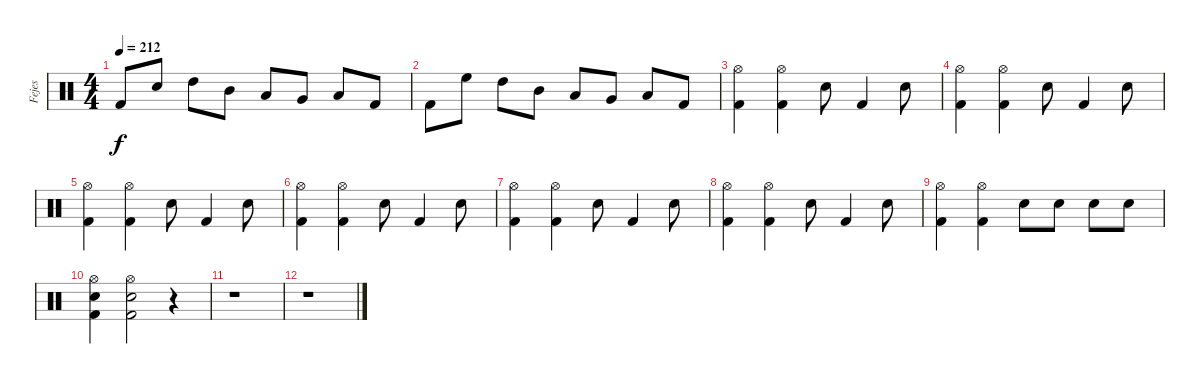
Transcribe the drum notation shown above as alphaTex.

\track ("Fejes" "Fejes") {instrument percussion}
\staff {score}
\articulation defaults
\ts (4 4)
\tempo 212
\clef neutral
\ks c "Kick (hit) 2".8{dy f} "Snare (hit) 2".8 "High Tom (hit)".8 "Mid Tom (hit)".8 "Low Tom (hit)".8 "Very Low Tom (hit)".8 "Low Floor Tom (hit)".8 "Kick (hit) 2".8
|
"Kick (hit) 2".8 "High Floor Tom (hit)".8 "High Tom (hit)".8 "Mid Tom (hit)".8 "Low Tom (hit)".8 "Very Low Tom (hit)".8 "Low Floor Tom (hit)".8 "Kick (hit) 2".8 |
("Hi-Hat (open)" "Kick (hit) 2").4 ("Hi-Hat (open)" "Kick (hit) 2").4 "Snare (hit) 2".8 "Kick (hit) 2".4 "Snare (hit) 2".8 |
("Hi-Hat (open)" "Kick (hit) 2").4 ("Hi-Hat (open)" "Kick (hit) 2").4 "Snare (hit) 2".8 "Kick (hit) 2".4 "Snare (hit) 2".8 |
("Hi-Hat (open)" "Kick (hit) 2").4 ("Hi-Hat (open)" "Kick (hit) 2").4 "Snare (hit) 2".8 "Kick (hit) 2".4 "Snare (hit) 2".8 |
("Hi-Hat (open)" "Kick (hit) 2").4 ("Hi-Hat (open)" "Kick (hit) 2").4 "Snare (hit) 2".8 "Kick (hit) 2".4 "Snare (hit) 2".8 |
("Hi-Hat (open)" "Kick (hit) 2").4 ("Hi-Hat (open)" "Kick (hit) 2").4 "Snare (hit) 2".8 "Kick (hit) 2".4 "Snare (hit) 2".8 |
("Hi-Hat (open)" "Kick (hit) 2").4 ("Hi-Hat (open)" "Kick (hit) 2").4 "Snare (hit) 2".8 "Kick (hit) 2".4 "Snare (hit) 2".8 |
("Hi-Hat (open)" "Kick (hit) 2").4 ("Hi-Hat (open)" "Kick (hit) 2").4 "Snare (hit) 2".8 "Snare (hit) 2".8 "Snare (hit) 2".8 "Snare (hit) 2".8 |
("Hi-Hat (open)" "Snare (hit) 2" "Kick (hit) 2").4 ("Hi-Hat (open)" "Snare (hit) 2" "Kick (hit) 2").2 r.4 |
r.1 |
r.1
